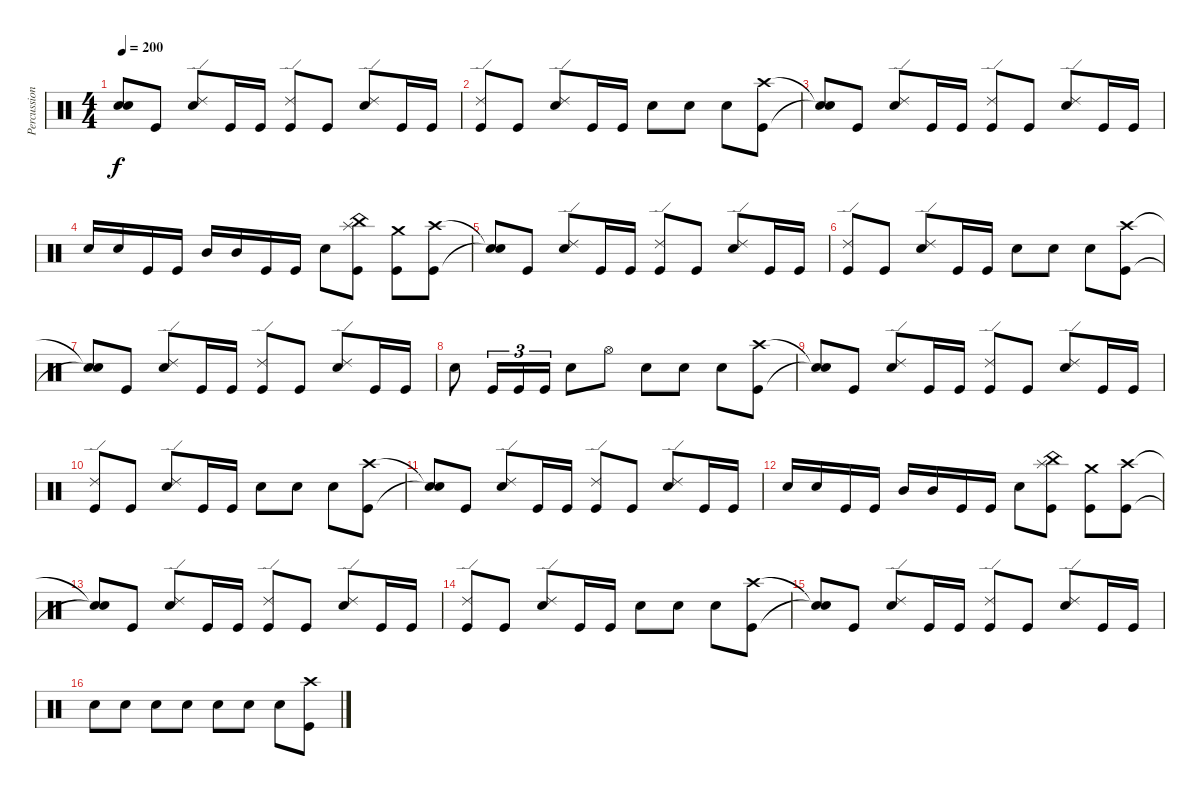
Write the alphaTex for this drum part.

\track ("Percussioni" "Percussion") {instrument percussion}
\staff {score}
\articulation defaults
\ts (4 4)
\tempo 200
\clef neutral
\ks c
("Snare (hit)"{t} "Snare (hit)"{t}).8{dy f} "Kick (hit)".8 ("Ride (edge) 2" "Electric Snare (hit)").8 "Kick (hit)".16 "Kick (hit)".16 ("Ride (edge) 2" "Kick (hit)").8 "Kick (hit)".8 ("Ride (edge) 2" "Electric Snare (hit)").8 "Kick (hit)".16 "Kick (hit)".16 |
("Ride (edge) 2" "Kick (hit)").8 "Kick (hit)".8 ("Ride (edge) 2" "Electric Snare (hit)").8 "Kick (hit)".16 "Kick (hit)".16 "Electric Snare (hit)".8 "Electric Snare (hit)".8 "Electric Snare (hit)".8 ("Crash high (hit)" "Kick (hit)").8 |
("Snare (hit)"{t} "Snare (hit)"{t}).8 "Kick (hit)".8 ("Ride (edge) 2" "Electric Snare (hit)").8 "Kick (hit)".16 "Kick (hit)".16 ("Ride (edge) 2" "Kick (hit)").8 "Kick (hit)".8 ("Ride (edge) 2" "Electric Snare (hit)").8 "Kick (hit)".16 "Kick (hit)".16 |
"Electric Snare (hit)".16 "Electric Snare (hit)".16 "Kick (hit)".16 "Kick (hit)".16 "Mid Tom (hit)".16 "Mid Tom (hit)".16 "Kick (hit)".16 "Kick (hit)".16 "Electric Snare (hit)".8 ("Splash (hit)" "China (hit)" "Kick (hit)").8 ("Crash medium (hit)" "Kick (hit)").8 ("Crash high (hit)" "Kick (hit)").8 |
("Snare (hit)"{t} "Snare (hit)"{t}).8 "Kick (hit)".8 ("Ride (edge) 2" "Electric Snare (hit)").8 "Kick (hit)".16 "Kick (hit)".16 ("Ride (edge) 2" "Kick (hit)").8 "Kick (hit)".8 ("Ride (edge) 2" "Electric Snare (hit)").8 "Kick (hit)".16 "Kick (hit)".16 |
("Ride (edge) 2" "Kick (hit)").8 "Kick (hit)".8 ("Ride (edge) 2" "Electric Snare (hit)").8 "Kick (hit)".16 "Kick (hit)".16 "Electric Snare (hit)".8 "Electric Snare (hit)".8 "Electric Snare (hit)".8 ("Crash high (hit)" "Kick (hit)").8 |
("Snare (hit)"{t} "Snare (hit)"{t}).8 "Kick (hit)".8 ("Ride (edge) 2" "Electric Snare (hit)").8 "Kick (hit)".16 "Kick (hit)".16 ("Ride (edge) 2" "Kick (hit)").8 "Kick (hit)".8 ("Ride (edge) 2" "Electric Snare (hit)").8 "Kick (hit)".16 "Kick (hit)".16 |
"Electric Snare (hit)".8 "Kick (hit)".16{tu (3 2)} "Kick (hit)".16{tu (3 2)} "Kick (hit)".16{tu (3 2)} "Electric Snare (hit)".8 "Hi-Hat (open)".8 "Electric Snare (hit)".8 "Electric Snare (hit)".8 "Electric Snare (hit)".8 ("Crash high (hit)" "Kick (hit)").8 |
("Snare (hit)"{t} "Snare (hit)"{t}).8 "Kick (hit)".8 ("Ride (edge) 2" "Electric Snare (hit)").8 "Kick (hit)".16 "Kick (hit)".16 ("Ride (edge) 2" "Kick (hit)").8 "Kick (hit)".8 ("Ride (edge) 2" "Electric Snare (hit)").8 "Kick (hit)".16 "Kick (hit)".16 |
("Ride (edge) 2" "Kick (hit)").8 "Kick (hit)".8 ("Ride (edge) 2" "Electric Snare (hit)").8 "Kick (hit)".16 "Kick (hit)".16 "Electric Snare (hit)".8 "Electric Snare (hit)".8 "Electric Snare (hit)".8 ("Crash high (hit)" "Kick (hit)").8 |
("Snare (hit)"{t} "Snare (hit)"{t}).8 "Kick (hit)".8 ("Ride (edge) 2" "Electric Snare (hit)").8 "Kick (hit)".16 "Kick (hit)".16 ("Ride (edge) 2" "Kick (hit)").8 "Kick (hit)".8 ("Ride (edge) 2" "Electric Snare (hit)").8 "Kick (hit)".16 "Kick (hit)".16 |
"Electric Snare (hit)".16 "Electric Snare (hit)".16 "Kick (hit)".16 "Kick (hit)".16 "Mid Tom (hit)".16 "Mid Tom (hit)".16 "Kick (hit)".16 "Kick (hit)".16 "Electric Snare (hit)".8 ("Splash (hit)" "China (hit)" "Kick (hit)").8 ("Crash medium (hit)" "Kick (hit)").8 ("Crash high (hit)" "Kick (hit)").8 |
("Snare (hit)"{t} "Snare (hit)"{t}).8 "Kick (hit)".8 ("Ride (edge) 2" "Electric Snare (hit)").8 "Kick (hit)".16 "Kick (hit)".16 ("Ride (edge) 2" "Kick (hit)").8 "Kick (hit)".8 ("Ride (edge) 2" "Electric Snare (hit)").8 "Kick (hit)".16 "Kick (hit)".16 |
("Ride (edge) 2" "Kick (hit)").8 "Kick (hit)".8 ("Ride (edge) 2" "Electric Snare (hit)").8 "Kick (hit)".16 "Kick (hit)".16 "Electric Snare (hit)".8 "Electric Snare (hit)".8 "Electric Snare (hit)".8 ("Crash high (hit)" "Kick (hit)").8 |
("Snare (hit)"{t} "Snare (hit)"{t}).8 "Kick (hit)".8 ("Ride (edge) 2" "Electric Snare (hit)").8 "Kick (hit)".16 "Kick (hit)".16 ("Ride (edge) 2" "Kick (hit)").8 "Kick (hit)".8 ("Ride (edge) 2" "Electric Snare (hit)").8 "Kick (hit)".16 "Kick (hit)".16 |
"Electric Snare (hit)".8 "Electric Snare (hit)".8 "Electric Snare (hit)".8 "Electric Snare (hit)".8 "Electric Snare (hit)".8 "Electric Snare (hit)".8 "Electric Snare (hit)".8 ("Crash high (hit)" "Kick (hit)").8
